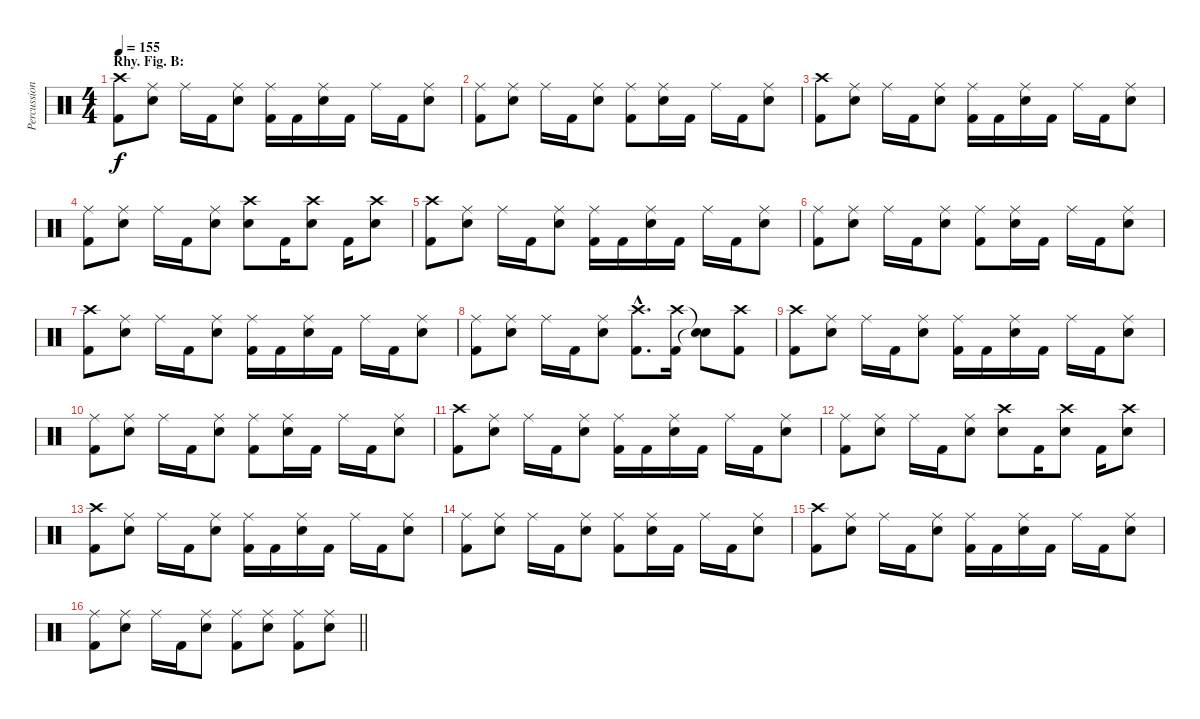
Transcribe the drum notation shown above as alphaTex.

\track ("Percussion" "Percussion") {instrument percussion}
\staff {score}
\articulation defaults
\ts (4 4)
\section ("" "Rhy. Fig. B:")
\tempo 155
\clef neutral
\ks c
("Crash high (hit)" "Kick (hit) 2").8{dy f} ("Ride (middle)" "Electric Snare (hit)").8 "Ride (middle)".16 "Kick (hit) 2".16 ("Ride (middle)" "Electric Snare (hit)").8 ("Ride (middle)" "Kick (hit) 2").16 "Kick (hit) 2".16 ("Ride (middle)" "Electric Snare (hit)").16 "Kick (hit) 2".16 "Ride (middle)".16 "Kick (hit) 2".16 ("Ride (middle)" "Electric Snare (hit)").8 |
("Ride (middle)" "Kick (hit) 2").8 ("Ride (middle)" "Electric Snare (hit)").8 "Ride (middle)".16 "Kick (hit) 2".16 ("Ride (middle)" "Electric Snare (hit)").8 ("Ride (middle)" "Kick (hit) 2").8 ("Ride (middle)" "Electric Snare (hit)").16 "Kick (hit) 2".16 "Ride (middle)".16 "Kick (hit) 2".16 ("Ride (middle)" "Electric Snare (hit)").8 |
("Crash high (hit)" "Kick (hit) 2").8 ("Ride (middle)" "Electric Snare (hit)").8 "Ride (middle)".16 "Kick (hit) 2".16 ("Ride (middle)" "Electric Snare (hit)").8 ("Ride (middle)" "Kick (hit) 2").16 "Kick (hit) 2".16 ("Ride (middle)" "Electric Snare (hit)").16 "Kick (hit) 2".16 "Ride (middle)".16 "Kick (hit) 2".16 ("Ride (middle)" "Electric Snare (hit)").8 |
("Ride (middle)" "Kick (hit) 2").8 ("Ride (middle)" "Electric Snare (hit)").8 "Ride (middle)".16 "Kick (hit) 2".16 ("Ride (middle)" "Electric Snare (hit)").8 ("Crash high (hit)" "Electric Snare (hit)").8 "Kick (hit) 2".16 ("Crash high (hit)" "Electric Snare (hit)").8 "Kick (hit) 2".16 ("Crash high (hit)" "Electric Snare (hit)").8 |
("Crash high (hit)" "Kick (hit) 2").8 ("Ride (middle)" "Electric Snare (hit)").8 "Ride (middle)".16 "Kick (hit) 2".16 ("Ride (middle)" "Electric Snare (hit)").8 ("Ride (middle)" "Kick (hit) 2").16 "Kick (hit) 2".16 ("Ride (middle)" "Electric Snare (hit)").16 "Kick (hit) 2".16 "Ride (middle)".16 "Kick (hit) 2".16 ("Ride (middle)" "Electric Snare (hit)").8 |
("Ride (middle)" "Kick (hit) 2").8 ("Ride (middle)" "Electric Snare (hit)").8 "Ride (middle)".16 "Kick (hit) 2".16 ("Ride (middle)" "Electric Snare (hit)").8 ("Ride (middle)" "Kick (hit) 2").8 ("Ride (middle)" "Electric Snare (hit)").16 "Kick (hit) 2".16 "Ride (middle)".16 "Kick (hit) 2".16 ("Ride (middle)" "Electric Snare (hit)").8 |
("Crash high (hit)" "Kick (hit) 2").8 ("Ride (middle)" "Electric Snare (hit)").8 "Ride (middle)".16 "Kick (hit) 2".16 ("Ride (middle)" "Electric Snare (hit)").8 ("Ride (middle)" "Kick (hit) 2").16 "Kick (hit) 2".16 ("Ride (middle)" "Electric Snare (hit)").16 "Kick (hit) 2".16 "Ride (middle)".16 "Kick (hit) 2".16 ("Ride (middle)" "Electric Snare (hit)").8 |
("Ride (middle)" "Kick (hit) 2").8 ("Ride (middle)" "Electric Snare (hit)").8 "Ride (middle)".16 "Kick (hit) 2".16 ("Ride (middle)" "Electric Snare (hit)").8 ("Crash high (hit)"{hac} "Kick (hit) 2"{hac}).8{d} ("Crash high (hit)" "Kick (hit) 2").16 ("Snare (hit)"{t} "Snare (hit)"{t}).8 ("Crash high (hit)" "Kick (hit) 2").8 |
("Crash high (hit)" "Kick (hit) 2").8 ("Ride (middle)" "Electric Snare (hit)").8 "Ride (middle)".16 "Kick (hit) 2".16 ("Ride (middle)" "Electric Snare (hit)").8 ("Ride (middle)" "Kick (hit) 2").16 "Kick (hit) 2".16 ("Ride (middle)" "Electric Snare (hit)").16 "Kick (hit) 2".16 "Ride (middle)".16 "Kick (hit) 2".16 ("Ride (middle)" "Electric Snare (hit)").8 |
("Ride (middle)" "Kick (hit) 2").8 ("Ride (middle)" "Electric Snare (hit)").8 "Ride (middle)".16 "Kick (hit) 2".16 ("Ride (middle)" "Electric Snare (hit)").8 ("Ride (middle)" "Kick (hit) 2").8 ("Ride (middle)" "Electric Snare (hit)").16 "Kick (hit) 2".16 "Ride (middle)".16 "Kick (hit) 2".16 ("Ride (middle)" "Electric Snare (hit)").8 |
("Crash high (hit)" "Kick (hit) 2").8 ("Ride (middle)" "Electric Snare (hit)").8 "Ride (middle)".16 "Kick (hit) 2".16 ("Ride (middle)" "Electric Snare (hit)").8 ("Ride (middle)" "Kick (hit) 2").16 "Kick (hit) 2".16 ("Ride (middle)" "Electric Snare (hit)").16 "Kick (hit) 2".16 "Ride (middle)".16 "Kick (hit) 2".16 ("Ride (middle)" "Electric Snare (hit)").8 |
("Ride (middle)" "Kick (hit) 2").8 ("Ride (middle)" "Electric Snare (hit)").8 "Ride (middle)".16 "Kick (hit) 2".16 ("Ride (middle)" "Electric Snare (hit)").8 ("Crash high (hit)" "Electric Snare (hit)").8 "Kick (hit) 2".16 ("Crash high (hit)" "Electric Snare (hit)").8 "Kick (hit) 2".16 ("Crash high (hit)" "Electric Snare (hit)").8 |
("Crash high (hit)" "Kick (hit) 2").8 ("Ride (middle)" "Electric Snare (hit)").8 "Ride (middle)".16 "Kick (hit) 2".16 ("Ride (middle)" "Electric Snare (hit)").8 ("Ride (middle)" "Kick (hit) 2").16 "Kick (hit) 2".16 ("Ride (middle)" "Electric Snare (hit)").16 "Kick (hit) 2".16 "Ride (middle)".16 "Kick (hit) 2".16 ("Ride (middle)" "Electric Snare (hit)").8 |
("Ride (middle)" "Kick (hit) 2").8 ("Ride (middle)" "Electric Snare (hit)").8 "Ride (middle)".16 "Kick (hit) 2".16 ("Ride (middle)" "Electric Snare (hit)").8 ("Ride (middle)" "Kick (hit) 2").8 ("Ride (middle)" "Electric Snare (hit)").16 "Kick (hit) 2".16 "Ride (middle)".16 "Kick (hit) 2".16 ("Ride (middle)" "Electric Snare (hit)").8 |
("Crash high (hit)" "Kick (hit) 2").8 ("Ride (middle)" "Electric Snare (hit)").8 "Ride (middle)".16 "Kick (hit) 2".16 ("Ride (middle)" "Electric Snare (hit)").8 ("Ride (middle)" "Kick (hit) 2").16 "Kick (hit) 2".16 ("Ride (middle)" "Electric Snare (hit)").16 "Kick (hit) 2".16 "Ride (middle)".16 "Kick (hit) 2".16 ("Ride (middle)" "Electric Snare (hit)").8 |
\barLineRight lightlight
("Ride (middle)" "Kick (hit) 2").8 ("Ride (middle)" "Electric Snare (hit)").8 "Ride (middle)".16 "Kick (hit) 2".16 ("Ride (middle)" "Electric Snare (hit)").8 ("Ride (middle)" "Kick (hit) 2").8 ("Ride (middle)" "Electric Snare (hit)").8 ("Ride (middle)" "Kick (hit) 2").8 ("Ride (middle)" "Electric Snare (hit)").8
